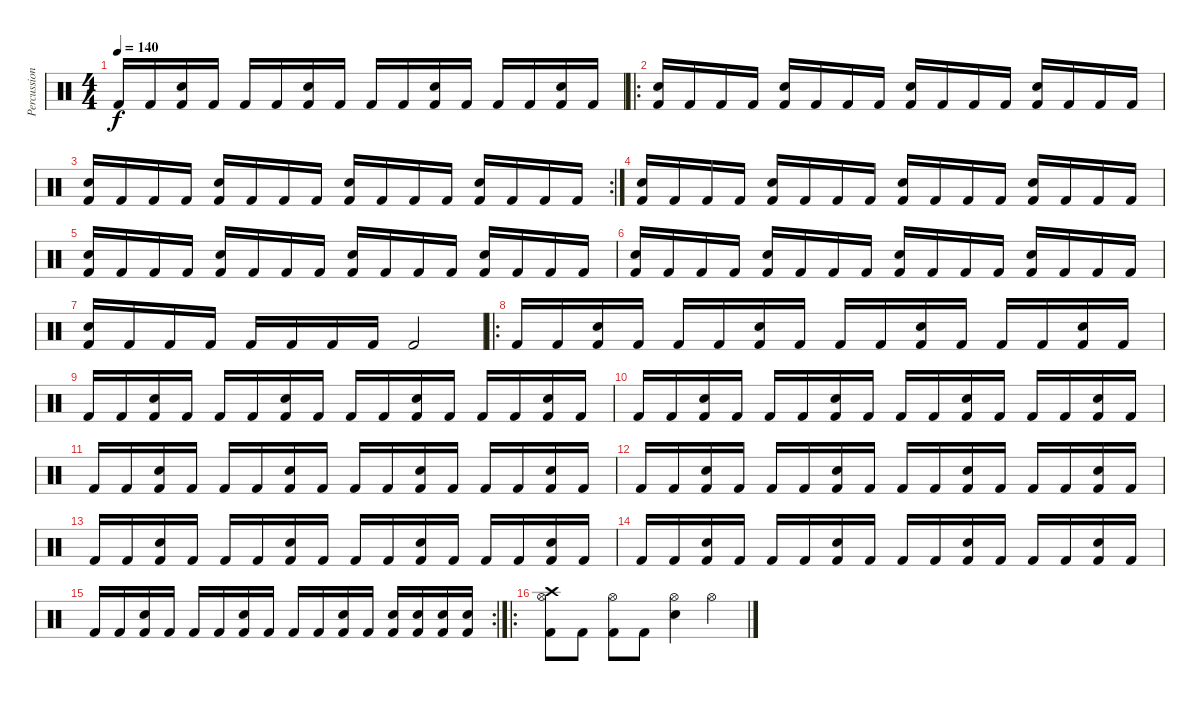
\track ("Percussion" "Percussion") {instrument percussion}
\staff {score}
\articulation defaults
\ts (4 4)
\tempo 140
\clef neutral
\ks c "Kick (hit) 2".16{dy f} "Kick (hit) 2".16
("Snare (hit) 2" "Kick (hit) 2").16 "Kick (hit) 2".16 "Kick (hit) 2".16 "Kick (hit) 2".16 ("Snare (hit) 2" "Kick (hit) 2").16 "Kick (hit) 2".16 "Kick (hit) 2".16 "Kick (hit) 2".16 ("Snare (hit) 2" "Kick (hit) 2").16 "Kick (hit) 2".16 "Kick (hit) 2".16 "Kick (hit) 2".16 ("Snare (hit) 2" "Kick (hit) 2").16 "Kick (hit) 2".16 |
\ro
("Snare (hit) 2" "Kick (hit) 2").16 "Kick (hit) 2".16 "Kick (hit) 2".16 "Kick (hit) 2".16 ("Snare (hit) 2" "Kick (hit) 2").16 "Kick (hit) 2".16 "Kick (hit) 2".16 "Kick (hit) 2".16 ("Snare (hit) 2" "Kick (hit) 2").16 "Kick (hit) 2".16 "Kick (hit) 2".16 "Kick (hit) 2".16 ("Snare (hit) 2" "Kick (hit) 2").16 "Kick (hit) 2".16 "Kick (hit) 2".16 "Kick (hit) 2".16 |
\rc 2
("Snare (hit) 2" "Kick (hit) 2").16 "Kick (hit) 2".16 "Kick (hit) 2".16 "Kick (hit) 2".16 ("Snare (hit) 2" "Kick (hit) 2").16 "Kick (hit) 2".16 "Kick (hit) 2".16 "Kick (hit) 2".16 ("Snare (hit) 2" "Kick (hit) 2").16 "Kick (hit) 2".16 "Kick (hit) 2".16 "Kick (hit) 2".16 ("Snare (hit) 2" "Kick (hit) 2").16 "Kick (hit) 2".16 "Kick (hit) 2".16 "Kick (hit) 2".16 |
("Snare (hit) 2" "Kick (hit) 2").16 "Kick (hit) 2".16 "Kick (hit) 2".16 "Kick (hit) 2".16 ("Snare (hit) 2" "Kick (hit) 2").16 "Kick (hit) 2".16 "Kick (hit) 2".16 "Kick (hit) 2".16 ("Snare (hit) 2" "Kick (hit) 2").16 "Kick (hit) 2".16 "Kick (hit) 2".16 "Kick (hit) 2".16 ("Snare (hit) 2" "Kick (hit) 2").16 "Kick (hit) 2".16 "Kick (hit) 2".16 "Kick (hit) 2".16 |
("Snare (hit) 2" "Kick (hit) 2").16 "Kick (hit) 2".16 "Kick (hit) 2".16 "Kick (hit) 2".16 ("Snare (hit) 2" "Kick (hit) 2").16 "Kick (hit) 2".16 "Kick (hit) 2".16 "Kick (hit) 2".16 ("Snare (hit) 2" "Kick (hit) 2").16 "Kick (hit) 2".16 "Kick (hit) 2".16 "Kick (hit) 2".16 ("Snare (hit) 2" "Kick (hit) 2").16 "Kick (hit) 2".16 "Kick (hit) 2".16 "Kick (hit) 2".16 |
("Snare (hit) 2" "Kick (hit) 2").16 "Kick (hit) 2".16 "Kick (hit) 2".16 "Kick (hit) 2".16 ("Snare (hit) 2" "Kick (hit) 2").16 "Kick (hit) 2".16 "Kick (hit) 2".16 "Kick (hit) 2".16 ("Snare (hit) 2" "Kick (hit) 2").16 "Kick (hit) 2".16 "Kick (hit) 2".16 "Kick (hit) 2".16 ("Snare (hit) 2" "Kick (hit) 2").16 "Kick (hit) 2".16 "Kick (hit) 2".16 "Kick (hit) 2".16 |
("Snare (hit) 2" "Kick (hit) 2").16 "Kick (hit) 2".16 "Kick (hit) 2".16 "Kick (hit) 2".16 "Kick (hit) 2".16 "Kick (hit) 2".16 "Kick (hit) 2".16 "Kick (hit) 2".16 "Kick (hit) 2".2 |
\ro "Kick (hit) 2".16 "Kick (hit) 2".16
("Snare (hit) 2" "Kick (hit) 2").16 "Kick (hit) 2".16 "Kick (hit) 2".16 "Kick (hit) 2".16 ("Snare (hit) 2" "Kick (hit) 2").16 "Kick (hit) 2".16 "Kick (hit) 2".16 "Kick (hit) 2".16 ("Snare (hit) 2" "Kick (hit) 2").16 "Kick (hit) 2".16 "Kick (hit) 2".16 "Kick (hit) 2".16 ("Snare (hit) 2" "Kick (hit) 2").16 "Kick (hit) 2".16 |
"Kick (hit) 2".16 "Kick (hit) 2".16 ("Snare (hit) 2" "Kick (hit) 2").16 "Kick (hit) 2".16 "Kick (hit) 2".16 "Kick (hit) 2".16 ("Snare (hit) 2" "Kick (hit) 2").16 "Kick (hit) 2".16 "Kick (hit) 2".16 "Kick (hit) 2".16 ("Snare (hit) 2" "Kick (hit) 2").16 "Kick (hit) 2".16 "Kick (hit) 2".16 "Kick (hit) 2".16 ("Snare (hit) 2" "Kick (hit) 2").16 "Kick (hit) 2".16 |
"Kick (hit) 2".16 "Kick (hit) 2".16 ("Snare (hit) 2" "Kick (hit) 2").16 "Kick (hit) 2".16 "Kick (hit) 2".16 "Kick (hit) 2".16 ("Snare (hit) 2" "Kick (hit) 2").16 "Kick (hit) 2".16 "Kick (hit) 2".16 "Kick (hit) 2".16 ("Snare (hit) 2" "Kick (hit) 2").16 "Kick (hit) 2".16 "Kick (hit) 2".16 "Kick (hit) 2".16 ("Snare (hit) 2" "Kick (hit) 2").16 "Kick (hit) 2".16 |
"Kick (hit) 2".16 "Kick (hit) 2".16 ("Snare (hit) 2" "Kick (hit) 2").16 "Kick (hit) 2".16 "Kick (hit) 2".16 "Kick (hit) 2".16 ("Snare (hit) 2" "Kick (hit) 2").16 "Kick (hit) 2".16 "Kick (hit) 2".16 "Kick (hit) 2".16 ("Snare (hit) 2" "Kick (hit) 2").16 "Kick (hit) 2".16 "Kick (hit) 2".16 "Kick (hit) 2".16 ("Snare (hit) 2" "Kick (hit) 2").16 "Kick (hit) 2".16 |
"Kick (hit) 2".16 "Kick (hit) 2".16 ("Snare (hit) 2" "Kick (hit) 2").16 "Kick (hit) 2".16 "Kick (hit) 2".16 "Kick (hit) 2".16 ("Snare (hit) 2" "Kick (hit) 2").16 "Kick (hit) 2".16 "Kick (hit) 2".16 "Kick (hit) 2".16 ("Snare (hit) 2" "Kick (hit) 2").16 "Kick (hit) 2".16 "Kick (hit) 2".16 "Kick (hit) 2".16 ("Snare (hit) 2" "Kick (hit) 2").16 "Kick (hit) 2".16 |
"Kick (hit) 2".16 "Kick (hit) 2".16 ("Snare (hit) 2" "Kick (hit) 2").16 "Kick (hit) 2".16 "Kick (hit) 2".16 "Kick (hit) 2".16 ("Snare (hit) 2" "Kick (hit) 2").16 "Kick (hit) 2".16 "Kick (hit) 2".16 "Kick (hit) 2".16 ("Snare (hit) 2" "Kick (hit) 2").16 "Kick (hit) 2".16 "Kick (hit) 2".16 "Kick (hit) 2".16 ("Snare (hit) 2" "Kick (hit) 2").16 "Kick (hit) 2".16 |
"Kick (hit) 2".16 "Kick (hit) 2".16 ("Snare (hit) 2" "Kick (hit) 2").16 "Kick (hit) 2".16 "Kick (hit) 2".16 "Kick (hit) 2".16 ("Snare (hit) 2" "Kick (hit) 2").16 "Kick (hit) 2".16 "Kick (hit) 2".16 "Kick (hit) 2".16 ("Snare (hit) 2" "Kick (hit) 2").16 "Kick (hit) 2".16 "Kick (hit) 2".16 "Kick (hit) 2".16 ("Snare (hit) 2" "Kick (hit) 2").16 "Kick (hit) 2".16 |
\rc 2 "Kick (hit) 2".16 "Kick (hit) 2".16
("Snare (hit) 2" "Kick (hit) 2").16 "Kick (hit) 2".16 "Kick (hit) 2".16 "Kick (hit) 2".16 ("Snare (hit) 2" "Kick (hit) 2").16 "Kick (hit) 2".16 "Kick (hit) 2".16 "Kick (hit) 2".16 ("Snare (hit) 2" "Kick (hit) 2").16 "Kick (hit) 2".16 ("Snare (hit) 2" "Kick (hit) 2").16 ("Snare (hit) 2" "Kick (hit) 2").16 ("Snare (hit) 2" "Kick (hit) 2").16 ("Snare (hit) 2" "Kick (hit) 2").16 |
\ro
("Crash high (hit)" "Hi-Hat (open)" "Kick (hit) 2").8 "Kick (hit) 2".8 ("Hi-Hat (open)" "Kick (hit) 2").8 "Kick (hit) 2".8 ("Hi-Hat (open)" "Snare (hit) 2").4 "Hi-Hat (open)".4
